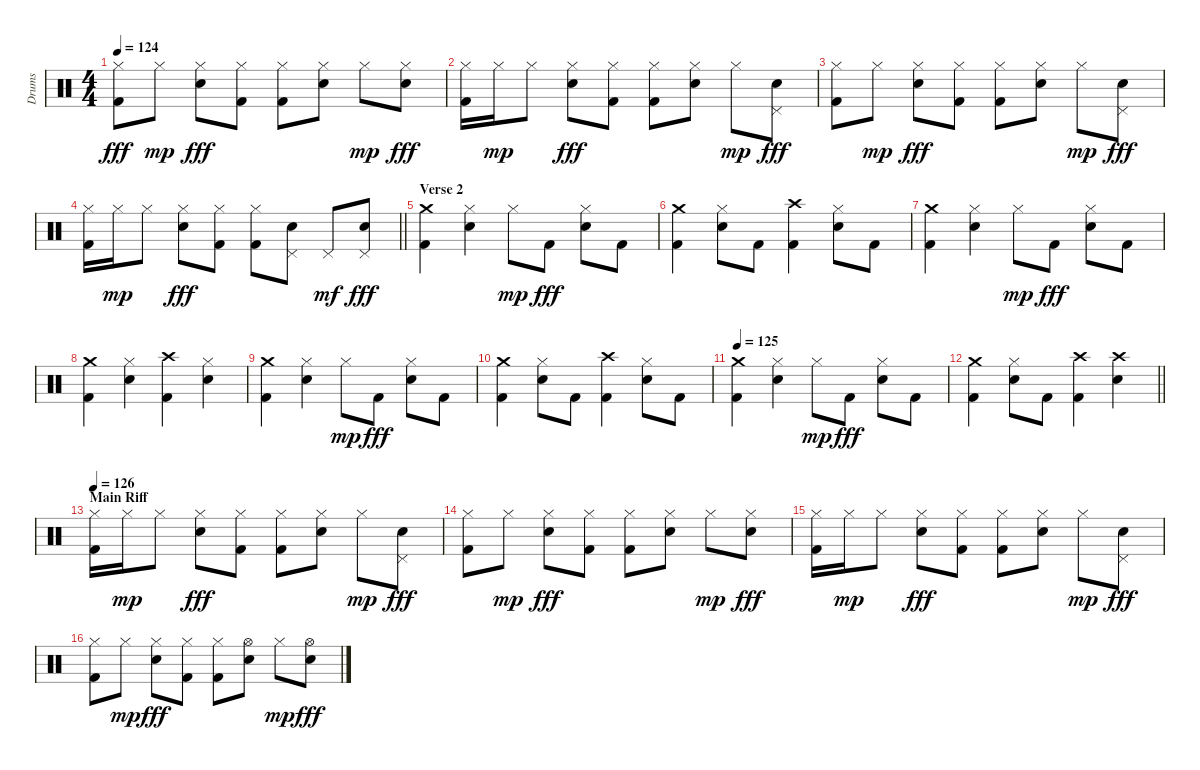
\track ("Drums" "Drums") {instrument percussion}
\staff {score}
\articulation defaults
\ts (4 4)
\tempo 124
\clef neutral
\ks c
("Hi-Hat (closed)" "Kick (hit) 2").8{dy fff} "Hi-Hat (closed)".8{dy mp} ("Hi-Hat (closed)" "Electric Snare (hit)").8{dy fff} ("Hi-Hat (closed)" "Kick (hit) 2").8 ("Hi-Hat (closed)" "Kick (hit) 2").8 ("Hi-Hat (closed)" "Electric Snare (hit)").8 "Hi-Hat (closed)".8{dy mp} ("Hi-Hat (closed)" "Electric Snare (hit)").8{dy fff} |
("Hi-Hat (closed)" "Kick (hit) 2").16 "Hi-Hat (closed)".16{dy mp} "Hi-Hat (closed)".8 ("Hi-Hat (closed)" "Electric Snare (hit)").8{dy fff} ("Hi-Hat (closed)" "Kick (hit) 2").8 ("Hi-Hat (closed)" "Kick (hit) 2").8 ("Hi-Hat (closed)" "Electric Snare (hit)").8 "Hi-Hat (closed)".8{dy mp} ("Pedal Hi-Hat (hit)" "Electric Snare (hit)").8{dy fff} |
("Hi-Hat (closed)" "Kick (hit) 2").8 "Hi-Hat (closed)".8{dy mp} ("Hi-Hat (closed)" "Electric Snare (hit)").8{dy fff} ("Hi-Hat (closed)" "Kick (hit) 2").8 ("Hi-Hat (closed)" "Kick (hit) 2").8 ("Hi-Hat (closed)" "Electric Snare (hit)").8 "Hi-Hat (closed)".8{dy mp} ("Pedal Hi-Hat (hit)" "Electric Snare (hit)").8{dy fff} |
\barLineRight lightlight
("Hi-Hat (closed)" "Kick (hit) 2").16 "Hi-Hat (closed)".16{dy mp} "Hi-Hat (closed)".8 ("Hi-Hat (closed)" "Electric Snare (hit)").8{dy fff} ("Hi-Hat (closed)" "Kick (hit) 2").8 ("Hi-Hat (closed)" "Kick (hit) 2").8 ("Pedal Hi-Hat (hit)" "Electric Snare (hit)").8 "Pedal Hi-Hat (hit)".8{dy mf} ("Pedal Hi-Hat (hit)" "Electric Snare (hit)").8{dy fff} |
\section ("" "Verse 2")
("Crash medium (hit)" "Kick (hit) 2").4 ("Hi-Hat (closed)" "Electric Snare (hit)").4 "Hi-Hat (closed)".8{dy mp} "Kick (hit) 2".8{dy fff} ("Hi-Hat (closed)" "Electric Snare (hit)").8 "Kick (hit) 2".8 |
("Crash medium (hit)" "Kick (hit) 2").4 ("Hi-Hat (closed)" "Electric Snare (hit)").8 "Kick (hit) 2".8 ("Crash high (hit)" "Kick (hit) 2").4 ("Hi-Hat (closed)" "Electric Snare (hit)").8 "Kick (hit) 2".8 |
("Crash medium (hit)" "Kick (hit) 2").4 ("Hi-Hat (closed)" "Electric Snare (hit)").4 "Hi-Hat (closed)".8{dy mp} "Kick (hit) 2".8{dy fff} ("Hi-Hat (closed)" "Electric Snare (hit)").8 "Kick (hit) 2".8 |
("Crash medium (hit)" "Kick (hit) 2").4 ("Hi-Hat (closed)" "Electric Snare (hit)").4 ("Crash high (hit)" "Kick (hit) 2").4 ("Hi-Hat (closed)" "Electric Snare (hit)").4 |
("Crash medium (hit)" "Kick (hit) 2").4 ("Hi-Hat (closed)" "Electric Snare (hit)").4 "Hi-Hat (closed)".8{dy mp} "Kick (hit) 2".8{dy fff} ("Hi-Hat (closed)" "Electric Snare (hit)").8 "Kick (hit) 2".8 |
("Crash medium (hit)" "Kick (hit) 2").4 ("Hi-Hat (closed)" "Electric Snare (hit)").8 "Kick (hit) 2".8 ("Crash high (hit)" "Kick (hit) 2").4 ("Hi-Hat (closed)" "Electric Snare (hit)").8 "Kick (hit) 2".8 |
\tempo 125
("Crash medium (hit)" "Kick (hit) 2").4 ("Hi-Hat (closed)" "Electric Snare (hit)").4 "Hi-Hat (closed)".8{dy mp} "Kick (hit) 2".8{dy fff} ("Hi-Hat (closed)" "Electric Snare (hit)").8 "Kick (hit) 2".8 |
\barLineRight lightlight
("Crash medium (hit)" "Kick (hit) 2").4 ("Hi-Hat (closed)" "Electric Snare (hit)").8 "Kick (hit) 2".8 ("Crash high (hit)" "Kick (hit) 2").4 ("Crash high (hit)" "Electric Snare (hit)").4 |
\section ("" "Main Riff")
\tempo 126
("Hi-Hat (closed)" "Kick (hit) 2").16 "Hi-Hat (closed)".16{dy mp} "Hi-Hat (closed)".8 ("Hi-Hat (closed)" "Electric Snare (hit)").8{dy fff} ("Hi-Hat (closed)" "Kick (hit) 2").8 ("Hi-Hat (closed)" "Kick (hit) 2").8 ("Hi-Hat (closed)" "Electric Snare (hit)").8 "Hi-Hat (closed)".8{dy mp} ("Pedal Hi-Hat (hit)" "Electric Snare (hit)").8{dy fff} |
("Hi-Hat (closed)" "Kick (hit) 2").8 "Hi-Hat (closed)".8{dy mp} ("Hi-Hat (closed)" "Electric Snare (hit)").8{dy fff} ("Hi-Hat (closed)" "Kick (hit) 2").8 ("Hi-Hat (closed)" "Kick (hit) 2").8 ("Hi-Hat (closed)" "Electric Snare (hit)").8 "Hi-Hat (closed)".8{dy mp} ("Hi-Hat (closed)" "Electric Snare (hit)").8{dy fff} |
("Hi-Hat (closed)" "Kick (hit) 2").16 "Hi-Hat (closed)".16{dy mp} "Hi-Hat (closed)".8 ("Hi-Hat (closed)" "Electric Snare (hit)").8{dy fff} ("Hi-Hat (closed)" "Kick (hit) 2").8 ("Hi-Hat (closed)" "Kick (hit) 2").8 ("Hi-Hat (closed)" "Electric Snare (hit)").8 "Hi-Hat (closed)".8{dy mp} ("Pedal Hi-Hat (hit)" "Electric Snare (hit)").8{dy fff} |
("Hi-Hat (closed)" "Kick (hit) 2").8 "Hi-Hat (closed)".8{dy mp} ("Hi-Hat (closed)" "Electric Snare (hit)").8{dy fff} ("Hi-Hat (closed)" "Kick (hit) 2").8 ("Hi-Hat (closed)" "Kick (hit) 2").8 ("Hi-Hat (open)" "Electric Snare (hit)").8 "Hi-Hat (closed)".8{dy mp} ("Hi-Hat (open)" "Electric Snare (hit)").8{dy fff}
